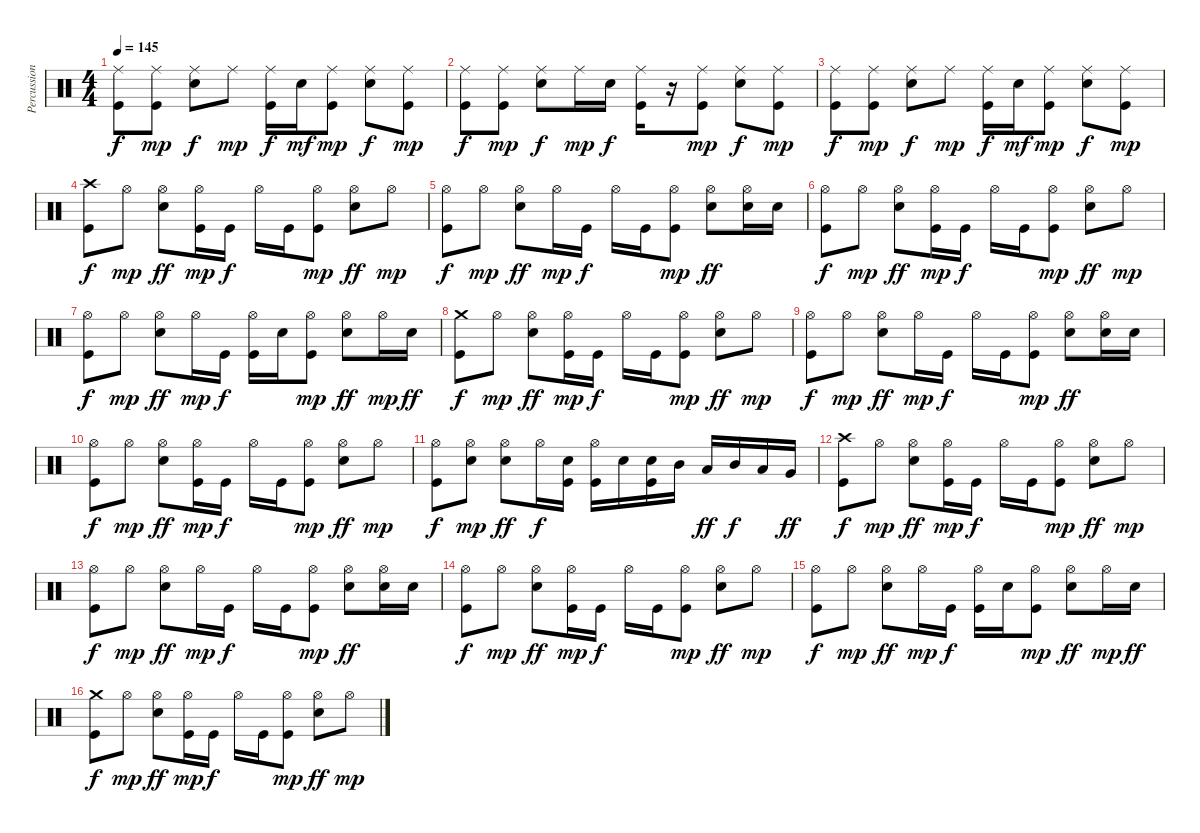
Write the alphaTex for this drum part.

\track ("Percussion" "Percussion") {instrument percussion}
\staff {score}
\articulation defaults
\ts (4 4)
\tempo 145
\clef neutral
\ks c
("Ride (middle)" "Kick (hit)").8{dy f} ("Ride (middle)" "Kick (hit)").8{dy mp} ("Ride (middle)" "Snare (hit) 2").8{dy f} "Ride (middle)".8{dy mp} ("Ride (middle)" "Kick (hit)").16{dy f} "Snare (hit) 2".16{dy mf} ("Ride (middle)" "Kick (hit)").8{dy mp} ("Ride (middle)" "Snare (hit) 2").8{dy f} ("Ride (middle)" "Kick (hit)").8{dy mp} |
("Ride (middle)" "Kick (hit)").8{dy f} ("Ride (middle)" "Kick (hit)").8{dy mp} ("Ride (middle)" "Snare (hit) 2").8{dy f} "Ride (middle)".16{dy mp} "Snare (hit) 2".16{dy f} ("Ride (middle)" "Kick (hit)").16 r.16 ("Ride (middle)" "Kick (hit)").8{dy mp} ("Ride (middle)" "Snare (hit) 2").8{dy f} ("Ride (middle)" "Kick (hit)").8{dy mp} |
("Ride (middle)" "Kick (hit)").8{dy f} ("Ride (middle)" "Kick (hit)").8{dy mp} ("Ride (middle)" "Snare (hit) 2").8{dy f} "Ride (middle)".8{dy mp} ("Ride (middle)" "Kick (hit)").16{dy f} "Snare (hit) 2".16{dy mf} ("Ride (middle)" "Kick (hit)").8{dy mp} ("Ride (middle)" "Snare (hit) 2").8{dy f} ("Ride (middle)" "Kick (hit)").8{dy mp} |
("Crash high (hit)" "Kick (hit)").8{dy f} "Hi-Hat (open)".8{dy mp} ("Hi-Hat (open)" "Snare (hit) 2").8{dy ff} ("Hi-Hat (open)" "Kick (hit)").16{dy mp} "Kick (hit)".16{dy f} "Hi-Hat (open)".16 "Kick (hit)".16 ("Hi-Hat (open)" "Kick (hit)").8{dy mp} ("Hi-Hat (open)" "Snare (hit) 2").8{dy ff} "Hi-Hat (open)".8{dy mp} |
("Hi-Hat (open)" "Kick (hit)").8{dy f} "Hi-Hat (open)".8{dy mp} ("Hi-Hat (open)" "Snare (hit) 2").8{dy ff} "Hi-Hat (open)".16{dy mp} "Kick (hit)".16{dy f} "Hi-Hat (open)".16 "Kick (hit)".16 ("Hi-Hat (open)" "Kick (hit)").8{dy mp} ("Hi-Hat (open)" "Snare (hit) 2").8{dy ff} ("Hi-Hat (open)" "Snare (hit) 2").16 "Snare (hit) 2".16 |
("Hi-Hat (open)" "Kick (hit)").8{dy f} "Hi-Hat (open)".8{dy mp} ("Hi-Hat (open)" "Snare (hit) 2").8{dy ff} ("Hi-Hat (open)" "Kick (hit)").16{dy mp} "Kick (hit)".16{dy f} "Hi-Hat (open)".16 "Kick (hit)".16 ("Hi-Hat (open)" "Kick (hit)").8{dy mp} ("Hi-Hat (open)" "Snare (hit) 2").8{dy ff} "Hi-Hat (open)".8{dy mp} |
("Hi-Hat (open)" "Kick (hit)").8{dy f} "Hi-Hat (open)".8{dy mp} ("Hi-Hat (open)" "Snare (hit) 2").8{dy ff} "Hi-Hat (open)".16{dy mp} "Kick (hit)".16{dy f} ("Hi-Hat (open)" "Kick (hit)").16 "Snare (hit) 2".16 ("Hi-Hat (open)" "Kick (hit)").8{dy mp} ("Hi-Hat (open)" "Snare (hit) 2").8{dy ff} "Hi-Hat (open)".16{dy mp} "Snare (hit) 2".16{dy ff} |
("Crash medium (hit)" "Kick (hit)").8{dy f} "Hi-Hat (open)".8{dy mp} ("Hi-Hat (open)" "Snare (hit) 2").8{dy ff} ("Hi-Hat (open)" "Kick (hit)").16{dy mp} "Kick (hit)".16{dy f} "Hi-Hat (open)".16 "Kick (hit)".16 ("Hi-Hat (open)" "Kick (hit)").8{dy mp} ("Hi-Hat (open)" "Snare (hit) 2").8{dy ff} "Hi-Hat (open)".8{dy mp} |
("Hi-Hat (open)" "Kick (hit)").8{dy f} "Hi-Hat (open)".8{dy mp} ("Hi-Hat (open)" "Snare (hit) 2").8{dy ff} "Hi-Hat (open)".16{dy mp} "Kick (hit)".16{dy f} "Hi-Hat (open)".16 "Kick (hit)".16 ("Hi-Hat (open)" "Kick (hit)").8{dy mp} ("Hi-Hat (open)" "Snare (hit) 2").8{dy ff} ("Hi-Hat (open)" "Snare (hit) 2").16 "Snare (hit) 2".16 |
("Hi-Hat (open)" "Kick (hit)").8{dy f} "Hi-Hat (open)".8{dy mp} ("Hi-Hat (open)" "Snare (hit) 2").8{dy ff} ("Hi-Hat (open)" "Kick (hit)").16{dy mp} "Kick (hit)".16{dy f} "Hi-Hat (open)".16 "Kick (hit)".16 ("Hi-Hat (open)" "Kick (hit)").8{dy mp} ("Hi-Hat (open)" "Snare (hit) 2").8{dy ff} "Hi-Hat (open)".8{dy mp} |
("Hi-Hat (open)" "Kick (hit)").8{dy f} ("Hi-Hat (open)" "Snare (hit) 2").8{dy mp} ("Hi-Hat (open)" "Snare (hit) 2").8{dy ff} "Hi-Hat (open)".16{dy f} ("Kick (hit)" "Snare (hit) 2").16 ("Hi-Hat (open)" "Kick (hit)").16 "Snare (hit) 2".16 ("Kick (hit)" "Snare (hit) 2").16 "Mid Tom (hit)".16 "Low Tom (hit)".16{dy ff} "Mid Tom (hit)".16{dy f} "Low Tom (hit)".16 "Very Low Tom (hit)".16{dy ff} |
("Crash high (hit)" "Kick (hit)").8{dy f} "Hi-Hat (open)".8{dy mp} ("Hi-Hat (open)" "Snare (hit) 2").8{dy ff} ("Hi-Hat (open)" "Kick (hit)").16{dy mp} "Kick (hit)".16{dy f} "Hi-Hat (open)".16 "Kick (hit)".16 ("Hi-Hat (open)" "Kick (hit)").8{dy mp} ("Hi-Hat (open)" "Snare (hit) 2").8{dy ff} "Hi-Hat (open)".8{dy mp} |
("Hi-Hat (open)" "Kick (hit)").8{dy f} "Hi-Hat (open)".8{dy mp} ("Hi-Hat (open)" "Snare (hit) 2").8{dy ff} "Hi-Hat (open)".16{dy mp} "Kick (hit)".16{dy f} "Hi-Hat (open)".16 "Kick (hit)".16 ("Hi-Hat (open)" "Kick (hit)").8{dy mp} ("Hi-Hat (open)" "Snare (hit) 2").8{dy ff} ("Hi-Hat (open)" "Snare (hit) 2").16 "Snare (hit) 2".16 |
("Hi-Hat (open)" "Kick (hit)").8{dy f} "Hi-Hat (open)".8{dy mp} ("Hi-Hat (open)" "Snare (hit) 2").8{dy ff} ("Hi-Hat (open)" "Kick (hit)").16{dy mp} "Kick (hit)".16{dy f} "Hi-Hat (open)".16 "Kick (hit)".16 ("Hi-Hat (open)" "Kick (hit)").8{dy mp} ("Hi-Hat (open)" "Snare (hit) 2").8{dy ff} "Hi-Hat (open)".8{dy mp} |
("Hi-Hat (open)" "Kick (hit)").8{dy f} "Hi-Hat (open)".8{dy mp} ("Hi-Hat (open)" "Snare (hit) 2").8{dy ff} "Hi-Hat (open)".16{dy mp} "Kick (hit)".16{dy f} ("Hi-Hat (open)" "Kick (hit)").16 "Snare (hit) 2".16 ("Hi-Hat (open)" "Kick (hit)").8{dy mp} ("Hi-Hat (open)" "Snare (hit) 2").8{dy ff} "Hi-Hat (open)".16{dy mp} "Snare (hit) 2".16{dy ff} |
("Crash medium (hit)" "Kick (hit)").8{dy f} "Hi-Hat (open)".8{dy mp} ("Hi-Hat (open)" "Snare (hit) 2").8{dy ff} ("Hi-Hat (open)" "Kick (hit)").16{dy mp} "Kick (hit)".16{dy f} "Hi-Hat (open)".16 "Kick (hit)".16 ("Hi-Hat (open)" "Kick (hit)").8{dy mp} ("Hi-Hat (open)" "Snare (hit) 2").8{dy ff} "Hi-Hat (open)".8{dy mp}
